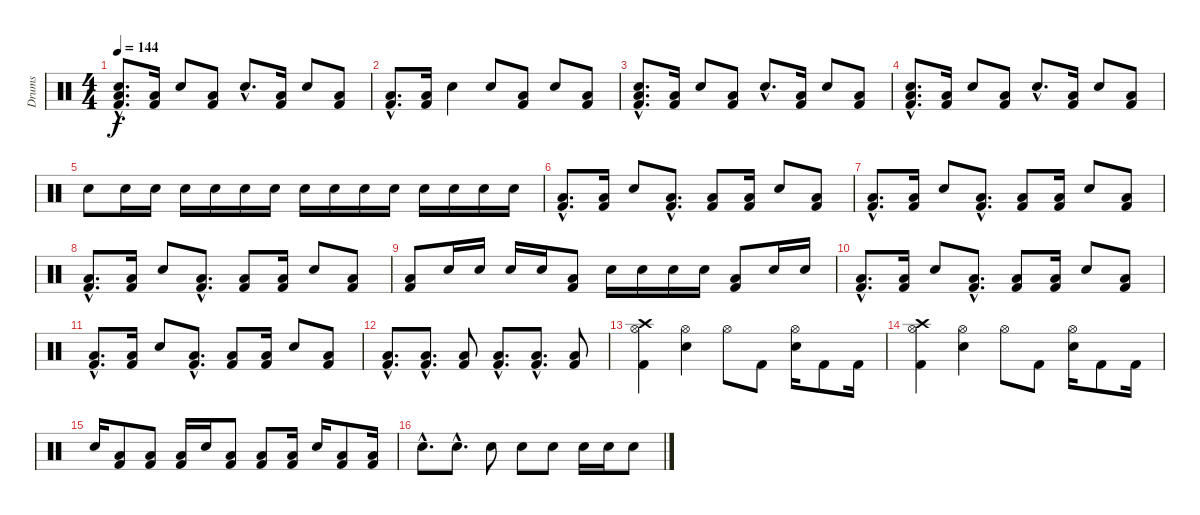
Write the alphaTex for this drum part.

\track ("Drums" "Drums") {instrument percussion}
\staff {score}
\articulation defaults
\ts (4 4)
\tempo 144
\clef neutral
\ks c
("Snare (hit) 2"{hac} "Low Floor Tom (hit)"{hac} "Kick (hit) 2"{hac}).8{d dy f} ("Low Floor Tom (hit)" "Kick (hit) 2").16 "Snare (hit) 2".8 ("Low Floor Tom (hit)" "Kick (hit) 2").8 "Snare (hit) 2"{hac}.8{d} ("Low Floor Tom (hit)" "Kick (hit) 2").16 "Snare (hit) 2".8 ("Low Floor Tom (hit)" "Kick (hit) 2").8 |
("Low Floor Tom (hit)"{hac} "Kick (hit) 2"{hac}).8{d} ("Low Floor Tom (hit)" "Kick (hit) 2").16 "Snare (hit) 2".4 "Snare (hit) 2".8 ("Low Floor Tom (hit)" "Kick (hit) 2").8 "Snare (hit) 2".8 ("Low Floor Tom (hit)" "Kick (hit) 2").8 |
("Snare (hit) 2"{hac} "Low Floor Tom (hit)"{hac} "Kick (hit) 2"{hac}).8{d} ("Low Floor Tom (hit)" "Kick (hit) 2").16 "Snare (hit) 2".8 ("Low Floor Tom (hit)" "Kick (hit) 2").8 "Snare (hit) 2"{hac}.8{d} ("Low Floor Tom (hit)" "Kick (hit) 2").16 "Snare (hit) 2".8 ("Low Floor Tom (hit)" "Kick (hit) 2").8 |
("Snare (hit) 2"{hac} "Low Floor Tom (hit)"{hac} "Kick (hit) 2"{hac}).8{d} ("Low Floor Tom (hit)" "Kick (hit) 2").16 "Snare (hit) 2".8 ("Low Floor Tom (hit)" "Kick (hit) 2").8 "Snare (hit) 2"{hac}.8{d} ("Low Floor Tom (hit)" "Kick (hit) 2").16 "Snare (hit) 2".8 ("Low Floor Tom (hit)" "Kick (hit) 2").8 |
"Snare (hit) 2".8 "Snare (hit) 2".16 "Snare (hit) 2".16 "Snare (hit) 2".16 "Snare (hit) 2".16 "Snare (hit) 2".16 "Snare (hit) 2".16 "Snare (hit) 2".16 "Snare (hit) 2".16 "Snare (hit) 2".16 "Snare (hit) 2".16 "Snare (hit) 2".16 "Snare (hit) 2".16 "Snare (hit) 2".16 "Snare (hit) 2".16 |
("Low Floor Tom (hit)"{hac} "Kick (hit) 2"{hac}).8{d} ("Low Floor Tom (hit)" "Kick (hit) 2").16 "Snare (hit) 2".8 ("Low Floor Tom (hit)"{hac} "Kick (hit) 2"{hac}).8{d} ("Low Floor Tom (hit)" "Kick (hit) 2").8 ("Low Floor Tom (hit)" "Kick (hit) 2").16 "Snare (hit) 2".8 ("Low Floor Tom (hit)" "Kick (hit) 2").8 |
("Low Floor Tom (hit)"{hac} "Kick (hit) 2"{hac}).8{d} ("Low Floor Tom (hit)" "Kick (hit) 2").16 "Snare (hit) 2".8 ("Low Floor Tom (hit)"{hac} "Kick (hit) 2"{hac}).8{d} ("Low Floor Tom (hit)" "Kick (hit) 2").8 ("Low Floor Tom (hit)" "Kick (hit) 2").16 "Snare (hit) 2".8 ("Low Floor Tom (hit)" "Kick (hit) 2").8 |
("Low Floor Tom (hit)"{hac} "Kick (hit) 2"{hac}).8{d} ("Low Floor Tom (hit)" "Kick (hit) 2").16 "Snare (hit) 2".8 ("Low Floor Tom (hit)"{hac} "Kick (hit) 2"{hac}).8{d} ("Low Floor Tom (hit)" "Kick (hit) 2").8 ("Low Floor Tom (hit)" "Kick (hit) 2").16 "Snare (hit) 2".8 ("Low Floor Tom (hit)" "Kick (hit) 2").8 |
("Low Floor Tom (hit)" "Kick (hit) 2").8 "Snare (hit) 2".16 "Snare (hit) 2".16 "Snare (hit) 2".16 "Snare (hit) 2".16 ("Low Floor Tom (hit)" "Kick (hit) 2").8 "Snare (hit) 2".16 "Snare (hit) 2".16 "Snare (hit) 2".16 "Snare (hit) 2".16 ("Low Floor Tom (hit)" "Kick (hit) 2").8 "Snare (hit) 2".16 "Snare (hit) 2".16 |
("Low Floor Tom (hit)"{hac} "Kick (hit) 2"{hac}).8{d} ("Low Floor Tom (hit)" "Kick (hit) 2").16 "Snare (hit) 2".8 ("Low Floor Tom (hit)"{hac} "Kick (hit) 2"{hac}).8{d} ("Low Floor Tom (hit)" "Kick (hit) 2").8 ("Low Floor Tom (hit)" "Kick (hit) 2").16 "Snare (hit) 2".8 ("Low Floor Tom (hit)" "Kick (hit) 2").8 |
("Low Floor Tom (hit)"{hac} "Kick (hit) 2"{hac}).8{d} ("Low Floor Tom (hit)" "Kick (hit) 2").16 "Snare (hit) 2".8 ("Low Floor Tom (hit)"{hac} "Kick (hit) 2"{hac}).8{d} ("Low Floor Tom (hit)" "Kick (hit) 2").8 ("Low Floor Tom (hit)" "Kick (hit) 2").16 "Snare (hit) 2".8 ("Low Floor Tom (hit)" "Kick (hit) 2").8 |
("Low Floor Tom (hit)"{hac} "Kick (hit) 2"{hac}).8{d} ("Low Floor Tom (hit)"{hac} "Kick (hit) 2"{hac}).8{d} ("Low Floor Tom (hit)" "Kick (hit) 2").8 ("Low Floor Tom (hit)"{hac} "Kick (hit) 2"{hac}).8{d} ("Low Floor Tom (hit)"{hac} "Kick (hit) 2"{hac}).8{d} ("Low Floor Tom (hit)" "Kick (hit) 2").8 |
("Crash high (hit)" "Hi-Hat (open)" "Kick (hit) 2").4 ("Hi-Hat (open)" "Snare (hit) 2").4 "Hi-Hat (open)".8 "Kick (hit) 2".8 ("Hi-Hat (open)" "Snare (hit) 2").16 "Kick (hit) 2".8 "Kick (hit) 2".16 |
("Crash high (hit)" "Hi-Hat (open)" "Kick (hit) 2").4 ("Hi-Hat (open)" "Snare (hit) 2").4 "Hi-Hat (open)".8 "Kick (hit) 2".8 ("Hi-Hat (open)" "Snare (hit) 2").16 "Kick (hit) 2".8 "Kick (hit) 2".16 |
"Snare (hit) 2".16 ("Low Floor Tom (hit)" "Kick (hit) 2").8 ("Low Floor Tom (hit)" "Kick (hit) 2").8 ("Low Floor Tom (hit)" "Kick (hit) 2").16 "Snare (hit) 2".16 ("Low Floor Tom (hit)" "Kick (hit) 2").8 ("Low Floor Tom (hit)" "Kick (hit) 2").8 ("Low Floor Tom (hit)" "Kick (hit) 2").16 "Snare (hit) 2".16 ("Low Floor Tom (hit)" "Kick (hit) 2").8 ("Low Floor Tom (hit)" "Kick (hit) 2").16 |
"Snare (hit) 2"{hac}.8{d} "Snare (hit) 2"{hac}.8{d} "Snare (hit) 2".8 "Snare (hit) 2".8 "Snare (hit) 2".8 "Snare (hit) 2".16 "Snare (hit) 2".16 "Snare (hit) 2".8
